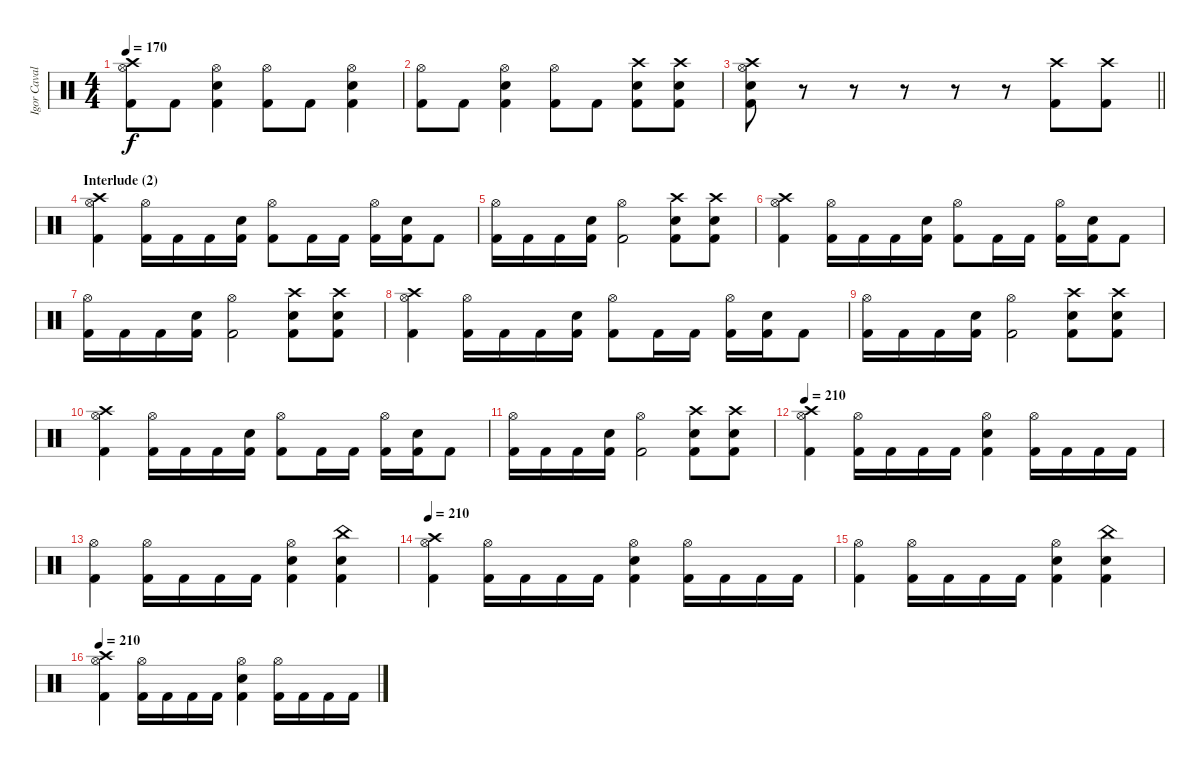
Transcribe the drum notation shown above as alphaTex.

\track ("Igor Cavalera" "Igor Caval") {instrument percussion}
\staff {score}
\articulation defaults
\ts (4 4)
\tempo 170
\clef neutral
\ks c
("Crash high (hit)" "Hi-Hat (open)" "Kick (hit) 2").8{dy f} "Kick (hit) 2".8 ("Hi-Hat (open)" "Electric Snare (hit)" "Kick (hit) 2").4 ("Hi-Hat (open)" "Kick (hit) 2").8 "Kick (hit) 2".8 ("Hi-Hat (open)" "Electric Snare (hit)" "Kick (hit) 2").4 |
("Hi-Hat (open)" "Kick (hit) 2").8 "Kick (hit) 2".8 ("Hi-Hat (open)" "Electric Snare (hit)" "Kick (hit) 2").4 ("Hi-Hat (open)" "Kick (hit) 2").8 "Kick (hit) 2".8 ("Crash high (hit)" "Electric Snare (hit)" "Kick (hit) 2").8 ("Crash high (hit)" "Electric Snare (hit)" "Kick (hit) 2").8 |
\barLineRight lightlight
("Crash high (hit)" "Hi-Hat (open)" "Electric Snare (hit)" "Kick (hit) 2").8 r.8 r.8 r.8 r.8 r.8 ("Crash high (hit)" "Kick (hit) 2").8 ("Crash high (hit)" "Kick (hit) 2").8 |
\section ("" "Interlude (2)")
("Crash high (hit)" "Hi-Hat (open)" "Kick (hit) 2").4 ("Hi-Hat (open)" "Kick (hit) 2").16 "Kick (hit) 2".16 "Kick (hit) 2".16 ("Electric Snare (hit)" "Kick (hit) 2").16 ("Hi-Hat (open)" "Kick (hit) 2").8 "Kick (hit) 2".16 "Kick (hit) 2".16 ("Hi-Hat (open)" "Kick (hit) 2").16 ("Electric Snare (hit)" "Kick (hit) 2").16 "Kick (hit) 2".8 |
("Hi-Hat (open)" "Kick (hit) 2").16 "Kick (hit) 2".16 "Kick (hit) 2".16 ("Electric Snare (hit)" "Kick (hit) 2").16 ("Hi-Hat (open)" "Kick (hit) 2").2 ("Crash high (hit)" "Electric Snare (hit)" "Kick (hit) 2").8 ("Crash high (hit)" "Electric Snare (hit)" "Kick (hit) 2").8 |
("Crash high (hit)" "Hi-Hat (open)" "Kick (hit) 2").4 ("Hi-Hat (open)" "Kick (hit) 2").16 "Kick (hit) 2".16 "Kick (hit) 2".16 ("Electric Snare (hit)" "Kick (hit) 2").16 ("Hi-Hat (open)" "Kick (hit) 2").8 "Kick (hit) 2".16 "Kick (hit) 2".16 ("Hi-Hat (open)" "Kick (hit) 2").16 ("Electric Snare (hit)" "Kick (hit) 2").16 "Kick (hit) 2".8 |
("Hi-Hat (open)" "Kick (hit) 2").16 "Kick (hit) 2".16 "Kick (hit) 2".16 ("Electric Snare (hit)" "Kick (hit) 2").16 ("Hi-Hat (open)" "Kick (hit) 2").2 ("Crash high (hit)" "Electric Snare (hit)" "Kick (hit) 2").8 ("Crash high (hit)" "Electric Snare (hit)" "Kick (hit) 2").8 |
("Crash high (hit)" "Hi-Hat (open)" "Kick (hit) 2").4 ("Hi-Hat (open)" "Kick (hit) 2").16 "Kick (hit) 2".16 "Kick (hit) 2".16 ("Electric Snare (hit)" "Kick (hit) 2").16 ("Hi-Hat (open)" "Kick (hit) 2").8 "Kick (hit) 2".16 "Kick (hit) 2".16 ("Hi-Hat (open)" "Kick (hit) 2").16 ("Electric Snare (hit)" "Kick (hit) 2").16 "Kick (hit) 2".8 |
("Hi-Hat (open)" "Kick (hit) 2").16 "Kick (hit) 2".16 "Kick (hit) 2".16 ("Electric Snare (hit)" "Kick (hit) 2").16 ("Hi-Hat (open)" "Kick (hit) 2").2 ("Crash high (hit)" "Electric Snare (hit)" "Kick (hit) 2").8 ("Crash high (hit)" "Electric Snare (hit)" "Kick (hit) 2").8 |
("Crash high (hit)" "Hi-Hat (open)" "Kick (hit) 2").4 ("Hi-Hat (open)" "Kick (hit) 2").16 "Kick (hit) 2".16 "Kick (hit) 2".16 ("Electric Snare (hit)" "Kick (hit) 2").16 ("Hi-Hat (open)" "Kick (hit) 2").8 "Kick (hit) 2".16 "Kick (hit) 2".16 ("Hi-Hat (open)" "Kick (hit) 2").16 ("Electric Snare (hit)" "Kick (hit) 2").16 "Kick (hit) 2".8 |
("Hi-Hat (open)" "Kick (hit) 2").16 "Kick (hit) 2".16 "Kick (hit) 2".16 ("Electric Snare (hit)" "Kick (hit) 2").16 ("Hi-Hat (open)" "Kick (hit) 2").2 ("Crash high (hit)" "Electric Snare (hit)" "Kick (hit) 2").8 ("Crash high (hit)" "Electric Snare (hit)" "Kick (hit) 2").8 |
\tempo 210
("Crash high (hit)" "Hi-Hat (open)" "Kick (hit) 2").4 ("Hi-Hat (open)" "Kick (hit) 2").16 "Kick (hit) 2".16 "Kick (hit) 2".16 "Kick (hit) 2".16 ("Hi-Hat (open)" "Electric Snare (hit)" "Kick (hit) 2").4 ("Hi-Hat (open)" "Kick (hit) 2").16 "Kick (hit) 2".16 "Kick (hit) 2".16 "Kick (hit) 2".16 |
("Hi-Hat (open)" "Kick (hit) 2").4 ("Hi-Hat (open)" "Kick (hit) 2").16 "Kick (hit) 2".16 "Kick (hit) 2".16 "Kick (hit) 2".16 ("Hi-Hat (open)" "Electric Snare (hit)" "Kick (hit) 2").4 ("China (hit)" "Electric Snare (hit)" "Kick (hit) 2").4 |
\tempo 210
("Crash high (hit)" "Hi-Hat (open)" "Kick (hit) 2").4 ("Hi-Hat (open)" "Kick (hit) 2").16 "Kick (hit) 2".16 "Kick (hit) 2".16 "Kick (hit) 2".16 ("Hi-Hat (open)" "Electric Snare (hit)" "Kick (hit) 2").4 ("Hi-Hat (open)" "Kick (hit) 2").16 "Kick (hit) 2".16 "Kick (hit) 2".16 "Kick (hit) 2".16 |
("Hi-Hat (open)" "Kick (hit) 2").4 ("Hi-Hat (open)" "Kick (hit) 2").16 "Kick (hit) 2".16 "Kick (hit) 2".16 "Kick (hit) 2".16 ("Hi-Hat (open)" "Electric Snare (hit)" "Kick (hit) 2").4 ("China (hit)" "Electric Snare (hit)" "Kick (hit) 2").4 |
\tempo 210
("Crash high (hit)" "Hi-Hat (open)" "Kick (hit) 2").4 ("Hi-Hat (open)" "Kick (hit) 2").16 "Kick (hit) 2".16 "Kick (hit) 2".16 "Kick (hit) 2".16 ("Hi-Hat (open)" "Electric Snare (hit)" "Kick (hit) 2").4 ("Hi-Hat (open)" "Kick (hit) 2").16 "Kick (hit) 2".16 "Kick (hit) 2".16 "Kick (hit) 2".16
